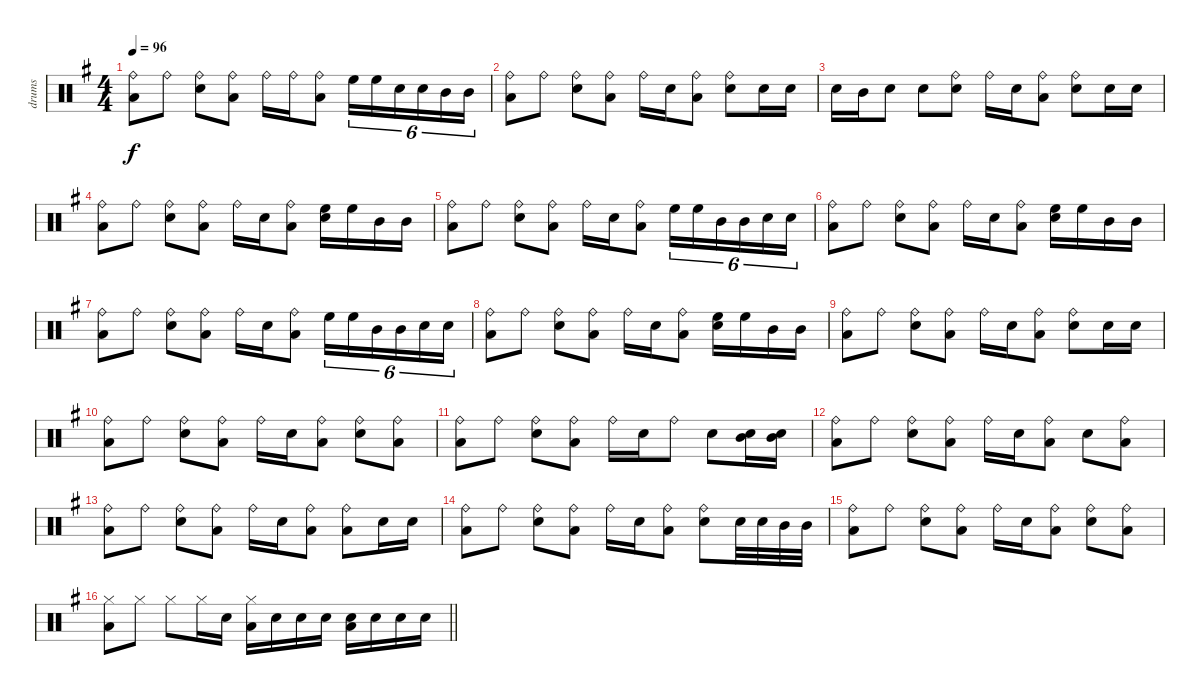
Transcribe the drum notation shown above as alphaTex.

\track ("drums" "drums") {instrument percussion}
\staff {score}
\articulation defaults
\ts (4 4)
\tempo 96
\clef neutral
\ks g
("Ride (bell)" "Low Floor Tom (hit)").8{dy f} "Ride (bell)".8 ("Ride (bell)" "Electric Snare (hit)").8 ("Ride (bell)" "Low Floor Tom (hit)").8 "Ride (bell)".16 "Ride (bell)".16 ("Ride (bell)" "Low Floor Tom (hit)").8 "High Floor Tom (hit)".16{tu (6 4)} "High Floor Tom (hit)".16{tu (6 4)} "Electric Snare (hit)".16{tu (6 4)} "Electric Snare (hit)".16{tu (6 4)} "Mid Tom (hit)".16{tu (6 4)} "Mid Tom (hit)".16{tu (6 4)} |
("Ride (bell)" "Low Floor Tom (hit)").8 "Ride (bell)".8 ("Ride (bell)" "Electric Snare (hit)").8 ("Ride (bell)" "Low Floor Tom (hit)").8 "Ride (bell)".16 "Electric Snare (hit)".16 ("Ride (bell)" "Low Floor Tom (hit)").8 ("Ride (bell)" "Electric Snare (hit)").8 "Electric Snare (hit)".16 "Electric Snare (hit)".16 |
"Electric Snare (hit)".16 "Mid Tom (hit)".16 "Snare (hit) 2".8 "Electric Snare (hit)".8 ("Ride (bell)" "Electric Snare (hit)").8 "Ride (bell)".16 "Electric Snare (hit)".16 ("Ride (bell)" "Low Floor Tom (hit)").8 ("Ride (bell)" "Electric Snare (hit)").8 "Snare (hit)".16 "Snare (hit) 2".16 |
("Ride (bell)" "Low Floor Tom (hit)").8 "Ride (bell)".8 ("Ride (bell)" "Electric Snare (hit)").8 ("Ride (bell)" "Low Floor Tom (hit)").8 "Ride (bell)".16 "Electric Snare (hit)".16 ("Ride (bell)" "Low Floor Tom (hit)").8 ("High Floor Tom (hit)" "Electric Snare (hit)").16 "High Floor Tom (hit)".16 "Mid Tom (hit)".16 "Mid Tom (hit)".16 |
("Ride (bell)" "Low Floor Tom (hit)").8 "Ride (bell)".8 ("Ride (bell)" "Electric Snare (hit)").8 ("Ride (bell)" "Low Floor Tom (hit)").8 "Ride (bell)".16 "Electric Snare (hit)".16 ("Ride (bell)" "Low Floor Tom (hit)").8 "High Floor Tom (hit)".16{tu (6 4)} "High Floor Tom (hit)".16{tu (6 4)} "Mid Tom (hit)".16{tu (6 4)} "Mid Tom (hit)".16{tu (6 4)} "Snare (hit) 2".16{tu (6 4)} "Snare (hit) 2".16{tu (6 4)} |
("Ride (bell)" "Low Floor Tom (hit)").8 "Ride (bell)".8 ("Ride (bell)" "Electric Snare (hit)").8 ("Ride (bell)" "Low Floor Tom (hit)").8 "Ride (bell)".16 "Electric Snare (hit)".16 ("Ride (bell)" "Low Floor Tom (hit)").8 ("High Floor Tom (hit)" "Electric Snare (hit)").16 "High Floor Tom (hit)".16 "Mid Tom (hit)".16 "Mid Tom (hit)".16 |
("Ride (bell)" "Low Floor Tom (hit)").8 "Ride (bell)".8 ("Ride (bell)" "Electric Snare (hit)").8 ("Ride (bell)" "Low Floor Tom (hit)").8 "Ride (bell)".16 "Electric Snare (hit)".16 ("Ride (bell)" "Low Floor Tom (hit)").8 "High Floor Tom (hit)".16{tu (6 4)} "High Floor Tom (hit)".16{tu (6 4)} "Mid Tom (hit)".16{tu (6 4)} "Mid Tom (hit)".16{tu (6 4)} "Snare (hit) 2".16{tu (6 4)} "Snare (hit) 2".16{tu (6 4)} |
("Ride (bell)" "Low Floor Tom (hit)").8 "Ride (bell)".8 ("Ride (bell)" "Electric Snare (hit)").8 ("Ride (bell)" "Low Floor Tom (hit)").8 "Ride (bell)".16 "Electric Snare (hit)".16 ("Ride (bell)" "Low Floor Tom (hit)").8 ("High Floor Tom (hit)" "Electric Snare (hit)").16 "High Floor Tom (hit)".16 "Mid Tom (hit)".16 "Mid Tom (hit)".16 |
("Ride (bell)" "Low Floor Tom (hit)").8 "Ride (bell)".8 ("Ride (bell)" "Electric Snare (hit)").8 ("Ride (bell)" "Low Floor Tom (hit)").8 "Ride (bell)".16 "Electric Snare (hit)".16 ("Ride (bell)" "Low Floor Tom (hit)").8 ("Ride (bell)" "Electric Snare (hit)").8 "Snare (hit) 2".16 "Snare (hit) 2".16 |
("Ride (bell)" "Low Floor Tom (hit)").8 "Ride (bell)".8 ("Ride (bell)" "Electric Snare (hit)").8 ("Ride (bell)" "Low Floor Tom (hit)").8 "Ride (bell)".16 "Electric Snare (hit)".16 ("Ride (bell)" "Low Floor Tom (hit)").8 ("Ride (bell)" "Electric Snare (hit)").8 ("Ride (bell)" "Low Floor Tom (hit)").8 |
("Ride (bell)" "Low Floor Tom (hit)").8 "Ride (bell)".8 ("Ride (bell)" "Electric Snare (hit)").8 ("Ride (bell)" "Low Floor Tom (hit)").8 "Ride (bell)".16 "Electric Snare (hit)".16 "Ride (bell)".8 "Electric Snare (hit)".8 ("Mid Tom (hit)" "Electric Snare (hit)").16 ("Mid Tom (hit)" "Electric Snare (hit)").16 |
("Ride (bell)" "Low Floor Tom (hit)").8 "Ride (bell)".8 ("Ride (bell)" "Electric Snare (hit)").8 ("Ride (bell)" "Low Floor Tom (hit)").8 "Ride (bell)".16 "Electric Snare (hit)".16 ("Ride (bell)" "Low Floor Tom (hit)").8 "Electric Snare (hit)".8 ("Ride (bell)" "Low Floor Tom (hit)").8 |
("Ride (bell)" "Low Floor Tom (hit)").8 "Ride (bell)".8 ("Ride (bell)" "Electric Snare (hit)").8 ("Ride (bell)" "Low Floor Tom (hit)").8 "Ride (bell)".16 "Electric Snare (hit)".16 ("Ride (bell)" "Low Floor Tom (hit)").8 ("Ride (bell)" "Low Floor Tom (hit)").8 "Snare (hit) 2".16 "Snare (hit) 2".16 |
("Ride (bell)" "Low Floor Tom (hit)").8 "Ride (bell)".8 ("Ride (bell)" "Electric Snare (hit)").8 ("Ride (bell)" "Low Floor Tom (hit)").8 "Ride (bell)".16 "Electric Snare (hit)".16 ("Ride (bell)" "Low Floor Tom (hit)").8 ("Ride (bell)" "Electric Snare (hit)").8 "Electric Snare (hit)".32 "Electric Snare (hit)".32 "Mid Tom (hit)".32 "Mid Tom (hit)".32 |
("Ride (bell)" "Low Floor Tom (hit)").8 "Ride (bell)".8 ("Ride (bell)" "Electric Snare (hit)").8 ("Ride (bell)" "Low Floor Tom (hit)").8 "Ride (bell)".16 "Electric Snare (hit)".16 ("Ride (bell)" "Low Floor Tom (hit)").8 ("Ride (bell)" "Electric Snare (hit)").8 ("Ride (bell)" "Low Floor Tom (hit)").8 |
\barLineRight lightlight
("Hi-Hat (closed)" "Low Floor Tom (hit)").8 "Hi-Hat (closed)".8 "Hi-Hat (closed)".8 "Hi-Hat (closed)".16 "Electric Snare (hit)".16 ("Hi-Hat (closed)" "Low Floor Tom (hit)").16 "Electric Snare (hit)".16 "Electric Snare (hit)".16 "Electric Snare (hit)".16 ("Electric Snare (hit)" "Low Floor Tom (hit)").16 "Electric Snare (hit)".16 "Electric Snare (hit)".16 "Electric Snare (hit)".16
